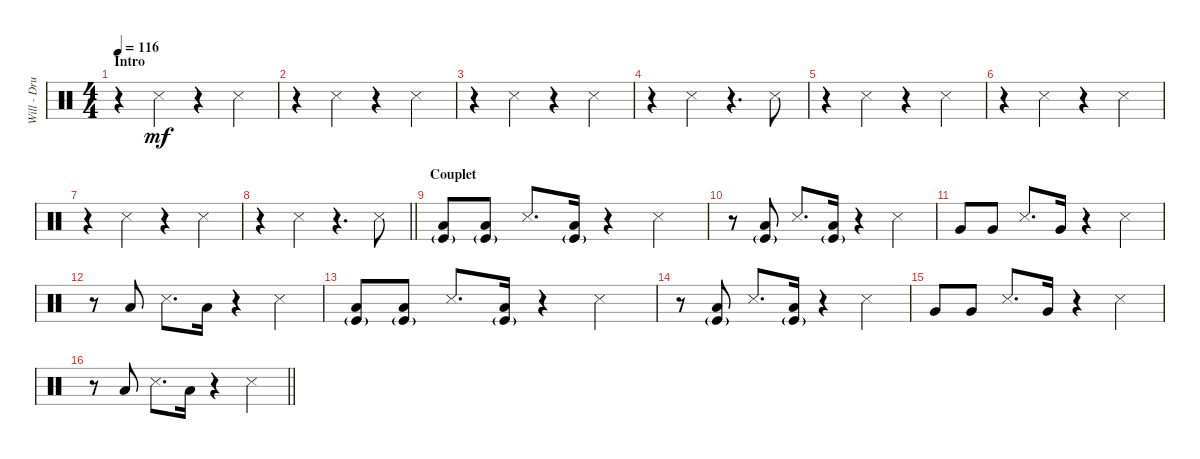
\track ("Will - Drumkit" "Will - Dru") {instrument percussion}
\staff {score}
\articulation defaults
\ts (4 4)
\section ("" "Intro")
\tempo 116
\clef neutral
\ks c
r.4{dy mf} "Snare (side stick) 3".4 r.4 "Snare (side stick) 3".4 |
r.4 "Snare (side stick) 3".4 r.4 "Snare (side stick) 3".4 |
r.4 "Snare (side stick) 3".4 r.4 "Snare (side stick) 3".4 |
r.4 "Snare (side stick) 3".4 r.4{d} "Snare (side stick) 3".8 |
r.4 "Snare (side stick) 3".4 r.4 "Snare (side stick) 3".4 |
r.4 "Snare (side stick) 3".4 r.4 "Snare (side stick) 3".4 |
r.4 "Snare (side stick) 3".4 r.4 "Snare (side stick) 3".4 |
\barLineRight lightlight
r.4 "Snare (side stick) 3".4 r.4{d} "Snare (side stick) 3".8 |
\section ("" "Couplet")
("Low Tom (hit)" "Kick (hit)"{g}).8 ("Low Tom (hit)" "Kick (hit)"{g}).8 "Snare (side stick) 3".8{d} ("Low Tom (hit)" "Kick (hit)"{g}).16 r.4 "Snare (side stick) 3".4 |
r.8 ("Low Tom (hit)" "Kick (hit)"{g}).8 "Snare (side stick) 3".8{d} ("Low Tom (hit)" "Kick (hit)"{g}).16 r.4 "Snare (side stick) 3".4 |
"Very Low Tom (hit)".8 "Very Low Tom (hit)".8 "Snare (side stick) 3".8{d} "Very Low Tom (hit)".16 r.4 "Snare (side stick) 3".4 |
r.8 "Low Floor Tom (hit)".8 "Snare (side stick) 3".8{d} "Low Floor Tom (hit)".16 r.4 "Snare (side stick) 3".4 |
("Low Tom (hit)" "Kick (hit)"{g}).8 ("Low Tom (hit)" "Kick (hit)"{g}).8 "Snare (side stick) 3".8{d} ("Low Tom (hit)" "Kick (hit)"{g}).16 r.4 "Snare (side stick) 3".4 |
r.8 ("Low Tom (hit)" "Kick (hit)"{g}).8 "Snare (side stick) 3".8{d} ("Low Tom (hit)" "Kick (hit)"{g}).16 r.4 "Snare (side stick) 3".4 |
"Very Low Tom (hit)".8 "Very Low Tom (hit)".8 "Snare (side stick) 3".8{d} "Very Low Tom (hit)".16 r.4 "Snare (side stick) 3".4 |
\barLineRight lightlight
r.8 "Low Floor Tom (hit)".8 "Snare (side stick) 3".8{d} "Low Floor Tom (hit)".16 r.4 "Snare (side stick) 3".4
